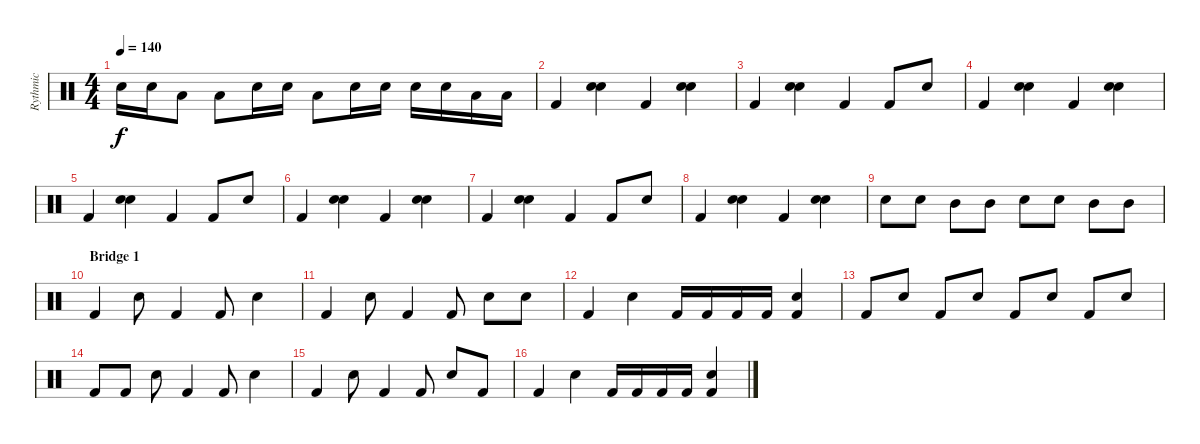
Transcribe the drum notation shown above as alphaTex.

\track ("Rythmic" "Rythmic") {instrument percussion}
\staff {score}
\articulation defaults
\ts (4 4)
\tempo 140
\clef neutral
\ks c "Snare (hit) 2".16{dy f} "Snare (hit) 2".16 "Low Floor Tom (hit)".8 "Low Floor Tom (hit)".8 "Snare (hit) 2".16 "Snare (hit) 2".16 "Low Floor Tom (hit)".8 "Snare (hit) 2".16 "Snare (hit) 2".16 "Snare (hit) 2".16 "Snare (hit) 2".16 "Low Floor Tom (hit)".16 "Low Floor Tom (hit)".16
|
"Kick (hit) 2".4 ("Snare (hit) 2" "Snare (hit) 2").4 "Kick (hit) 2".4 ("Snare (hit) 2" "Snare (hit) 2").4 |
"Kick (hit) 2".4 ("Snare (hit) 2" "Snare (hit) 2").4 "Kick (hit) 2".4 "Kick (hit) 2".8 "Snare (hit) 2".8 |
"Kick (hit) 2".4 ("Snare (hit) 2" "Snare (hit) 2").4 "Kick (hit) 2".4 ("Snare (hit) 2" "Snare (hit) 2").4 |
"Kick (hit) 2".4 ("Snare (hit) 2" "Snare (hit) 2").4 "Kick (hit) 2".4 "Kick (hit) 2".8 "Snare (hit) 2".8 |
"Kick (hit) 2".4 ("Snare (hit) 2" "Snare (hit) 2").4 "Kick (hit) 2".4 ("Snare (hit) 2" "Snare (hit) 2").4 |
"Kick (hit) 2".4 ("Snare (hit) 2" "Snare (hit) 2").4 "Kick (hit) 2".4 "Kick (hit) 2".8 "Snare (hit) 2".8 |
"Kick (hit) 2".4 ("Snare (hit) 2" "Snare (hit) 2").4 "Kick (hit) 2".4 ("Snare (hit) 2" "Snare (hit) 2").4 |
"Snare (hit) 2".8 "Snare (hit) 2".8 "Mid Tom (hit)".8 "Mid Tom (hit)".8 "Snare (hit) 2".8 "Snare (hit) 2".8 "Mid Tom (hit)".8 "Mid Tom (hit)".8 |
\section ("" "Bridge 1")
"Kick (hit) 2".4 "Snare (hit) 2".8 "Kick (hit) 2".4 "Kick (hit) 2".8 "Snare (hit) 2".4 |
"Kick (hit) 2".4 "Snare (hit) 2".8 "Kick (hit) 2".4 "Kick (hit) 2".8 "Snare (hit) 2".8 "Snare (hit) 2".8 |
"Kick (hit) 2".4 "Snare (hit) 2".4 "Kick (hit) 2".16 "Kick (hit) 2".16 "Kick (hit) 2".16 "Kick (hit) 2".16 ("Snare (hit) 2" "Kick (hit) 2").4 |
"Kick (hit) 2".8 "Snare (hit) 2".8 "Kick (hit) 2".8 "Snare (hit) 2".8 "Kick (hit) 2".8 "Snare (hit) 2".8 "Kick (hit) 2".8 "Snare (hit) 2".8 |
"Kick (hit) 2".8 "Kick (hit) 2".8 "Snare (hit) 2".8 "Kick (hit) 2".4 "Kick (hit) 2".8 "Snare (hit) 2".4 |
"Kick (hit) 2".4 "Snare (hit) 2".8 "Kick (hit) 2".4 "Kick (hit) 2".8 "Snare (hit) 2".8 "Kick (hit) 2".8 |
"Kick (hit) 2".4 "Snare (hit) 2".4 "Kick (hit) 2".16 "Kick (hit) 2".16 "Kick (hit) 2".16 "Kick (hit) 2".16 ("Snare (hit) 2" "Kick (hit) 2").4
